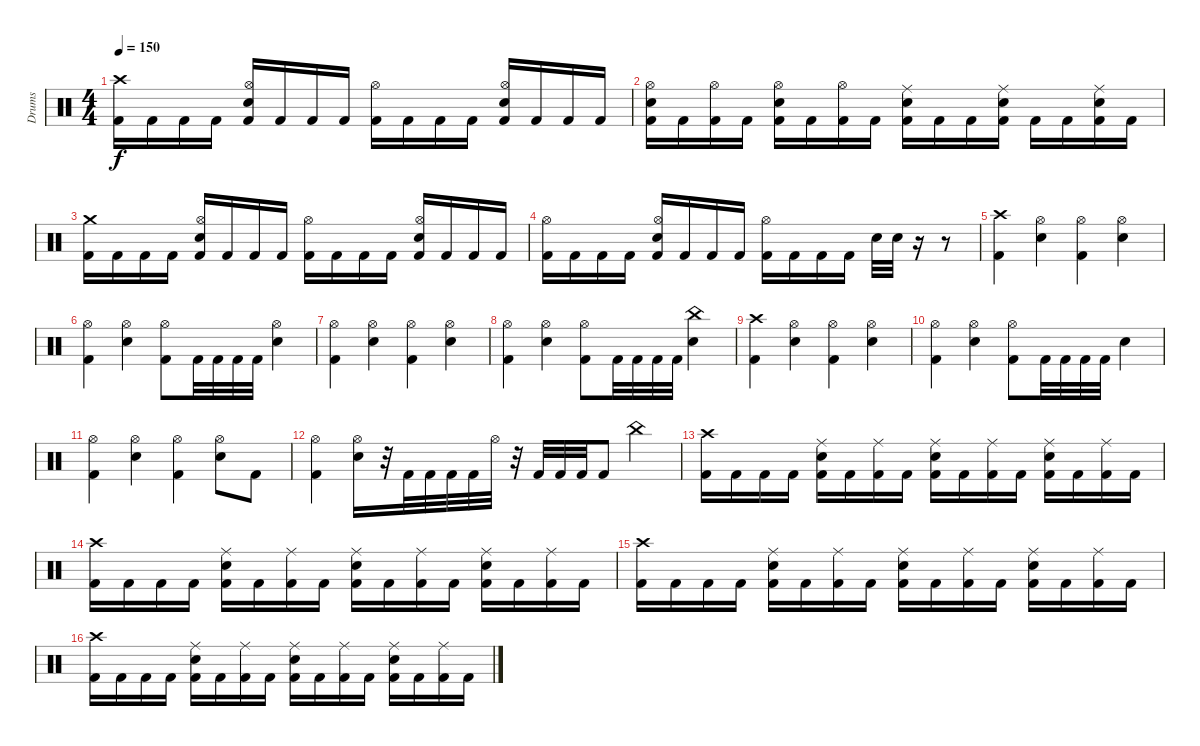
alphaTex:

\track ("Drums" "Drums") {instrument percussion}
\staff {score}
\articulation defaults
\ts (4 4)
\tempo 150
\clef neutral
\ks c
("Crash high (hit)" "Kick (hit) 2").16{dy f} "Kick (hit) 2".16 "Kick (hit) 2".16 "Kick (hit) 2".16 ("Hi-Hat (open)" "Snare (hit) 2" "Kick (hit) 2").16 "Kick (hit) 2".16 "Kick (hit) 2".16 "Kick (hit) 2".16 ("Hi-Hat (open)" "Kick (hit) 2").16 "Kick (hit) 2".16 "Kick (hit) 2".16 "Kick (hit) 2".16 ("Hi-Hat (open)" "Snare (hit) 2" "Kick (hit) 2").16 "Kick (hit) 2".16 "Kick (hit) 2".16 "Kick (hit) 2".16 |
("Hi-Hat (open)" "Snare (hit) 2" "Kick (hit) 2").16 "Kick (hit) 2".16 ("Hi-Hat (open)" "Kick (hit) 2").16 "Kick (hit) 2".16 ("Hi-Hat (open)" "Snare (hit) 2" "Kick (hit) 2").16 "Kick (hit) 2".16 ("Hi-Hat (open)" "Kick (hit) 2").16 "Kick (hit) 2".16 ("Ride (middle)" "Snare (hit) 2" "Kick (hit) 2").16 "Kick (hit) 2".16 "Kick (hit) 2".16 ("Ride (middle)" "Snare (hit) 2" "Kick (hit) 2").16 "Kick (hit) 2".16 "Kick (hit) 2".16 ("Ride (middle)" "Snare (hit) 2" "Kick (hit) 2").16 "Kick (hit) 2".16 |
("Crash medium (hit)" "Kick (hit) 2").16 "Kick (hit) 2".16 "Kick (hit) 2".16 "Kick (hit) 2".16 ("Hi-Hat (open)" "Snare (hit) 2" "Kick (hit) 2").16 "Kick (hit) 2".16 "Kick (hit) 2".16 "Kick (hit) 2".16 ("Hi-Hat (open)" "Kick (hit) 2").16 "Kick (hit) 2".16 "Kick (hit) 2".16 "Kick (hit) 2".16 ("Hi-Hat (open)" "Snare (hit) 2" "Kick (hit) 2").16 "Kick (hit) 2".16 "Kick (hit) 2".16 "Kick (hit) 2".16 |
("Hi-Hat (open)" "Kick (hit) 2").16 "Kick (hit) 2".16 "Kick (hit) 2".16 "Kick (hit) 2".16 ("Hi-Hat (open)" "Snare (hit) 2" "Kick (hit) 2").16 "Kick (hit) 2".16 "Kick (hit) 2".16 "Kick (hit) 2".16 ("Hi-Hat (open)" "Kick (hit) 2").16 "Kick (hit) 2".16 "Kick (hit) 2".16 "Kick (hit) 2".16 "Snare (hit) 2".32 "Snare (hit) 2".32 r.16 r.8 |
("Crash high (hit)" "Kick (hit) 2").4 ("Hi-Hat (open)" "Snare (hit) 2").4 ("Hi-Hat (open)" "Kick (hit) 2").4 ("Hi-Hat (open)" "Snare (hit) 2").4 |
("Hi-Hat (open)" "Kick (hit) 2").4 ("Hi-Hat (open)" "Snare (hit) 2").4 ("Hi-Hat (open)" "Kick (hit) 2").8 "Kick (hit) 2".32 "Kick (hit) 2".32 "Kick (hit) 2".32 "Kick (hit) 2".32 ("Hi-Hat (open)" "Snare (hit) 2").4 |
("Hi-Hat (open)" "Kick (hit) 2").4 ("Hi-Hat (open)" "Snare (hit) 2").4 ("Hi-Hat (open)" "Kick (hit) 2").4 ("Hi-Hat (open)" "Snare (hit) 2").4 |
("Hi-Hat (open)" "Kick (hit) 2").4 ("Hi-Hat (open)" "Snare (hit) 2").4 ("Hi-Hat (open)" "Kick (hit) 2").8 "Kick (hit) 2".32 "Kick (hit) 2".32 "Kick (hit) 2".32 "Kick (hit) 2".32 ("China (hit)" "Snare (hit) 2").4 |
("Crash high (hit)" "Kick (hit) 2").4 ("Hi-Hat (open)" "Snare (hit) 2").4 ("Hi-Hat (open)" "Kick (hit) 2").4 ("Hi-Hat (open)" "Snare (hit) 2").4 |
("Hi-Hat (open)" "Kick (hit) 2").4 ("Hi-Hat (open)" "Snare (hit) 2").4 ("Hi-Hat (open)" "Kick (hit) 2").8 "Kick (hit) 2".32 "Kick (hit) 2".32 "Kick (hit) 2".32 "Kick (hit) 2".32 "Snare (hit) 2".4 |
("Hi-Hat (open)" "Kick (hit) 2").4 ("Hi-Hat (open)" "Snare (hit) 2").4 ("Hi-Hat (open)" "Kick (hit) 2").4 ("Hi-Hat (open)" "Snare (hit) 2").8 "Kick (hit) 2".8 |
("Hi-Hat (open)" "Kick (hit) 2").4 ("Hi-Hat (open)" "Snare (hit) 2").16 r.32 "Kick (hit) 2".32 "Kick (hit) 2".32 "Kick (hit) 2".32 "Kick (hit) 2".32 "Hi-Hat (open)".32 r.32 "Kick (hit) 2".32 "Kick (hit) 2".32 "Kick (hit) 2".32 "Kick (hit) 2".8 "China (hit)".4 |
("Crash high (hit)" "Kick (hit) 2").16 "Kick (hit) 2".16 "Kick (hit) 2".16 "Kick (hit) 2".16 ("Ride (middle)" "Snare (hit) 2" "Kick (hit) 2").16 "Kick (hit) 2".16 ("Ride (middle)" "Kick (hit) 2").16 "Kick (hit) 2".16 ("Ride (middle)" "Snare (hit) 2" "Kick (hit) 2").16 "Kick (hit) 2".16 ("Ride (middle)" "Kick (hit) 2").16 "Kick (hit) 2".16 ("Ride (middle)" "Snare (hit) 2" "Kick (hit) 2").16 "Kick (hit) 2".16 ("Ride (middle)" "Kick (hit) 2").16 "Kick (hit) 2".16 |
("Crash high (hit)" "Kick (hit) 2").16 "Kick (hit) 2".16 "Kick (hit) 2".16 "Kick (hit) 2".16 ("Ride (middle)" "Snare (hit) 2" "Kick (hit) 2").16 "Kick (hit) 2".16 ("Ride (middle)" "Kick (hit) 2").16 "Kick (hit) 2".16 ("Ride (middle)" "Snare (hit) 2" "Kick (hit) 2").16 "Kick (hit) 2".16 ("Ride (middle)" "Kick (hit) 2").16 "Kick (hit) 2".16 ("Ride (middle)" "Snare (hit) 2" "Kick (hit) 2").16 "Kick (hit) 2".16 ("Ride (middle)" "Kick (hit) 2").16 "Kick (hit) 2".16 |
("Crash high (hit)" "Kick (hit) 2").16 "Kick (hit) 2".16 "Kick (hit) 2".16 "Kick (hit) 2".16 ("Ride (middle)" "Snare (hit) 2" "Kick (hit) 2").16 "Kick (hit) 2".16 ("Ride (middle)" "Kick (hit) 2").16 "Kick (hit) 2".16 ("Ride (middle)" "Snare (hit) 2" "Kick (hit) 2").16 "Kick (hit) 2".16 ("Ride (middle)" "Kick (hit) 2").16 "Kick (hit) 2".16 ("Ride (middle)" "Snare (hit) 2" "Kick (hit) 2").16 "Kick (hit) 2".16 ("Ride (middle)" "Kick (hit) 2").16 "Kick (hit) 2".16 |
("Crash high (hit)" "Kick (hit) 2").16 "Kick (hit) 2".16 "Kick (hit) 2".16 "Kick (hit) 2".16 ("Ride (middle)" "Snare (hit) 2" "Kick (hit) 2").16 "Kick (hit) 2".16 ("Ride (middle)" "Kick (hit) 2").16 "Kick (hit) 2".16 ("Ride (middle)" "Snare (hit) 2" "Kick (hit) 2").16 "Kick (hit) 2".16 ("Ride (middle)" "Kick (hit) 2").16 "Kick (hit) 2".16 ("Ride (middle)" "Snare (hit) 2" "Kick (hit) 2").16 "Kick (hit) 2".16 ("Ride (middle)" "Kick (hit) 2").16 "Kick (hit) 2".16
